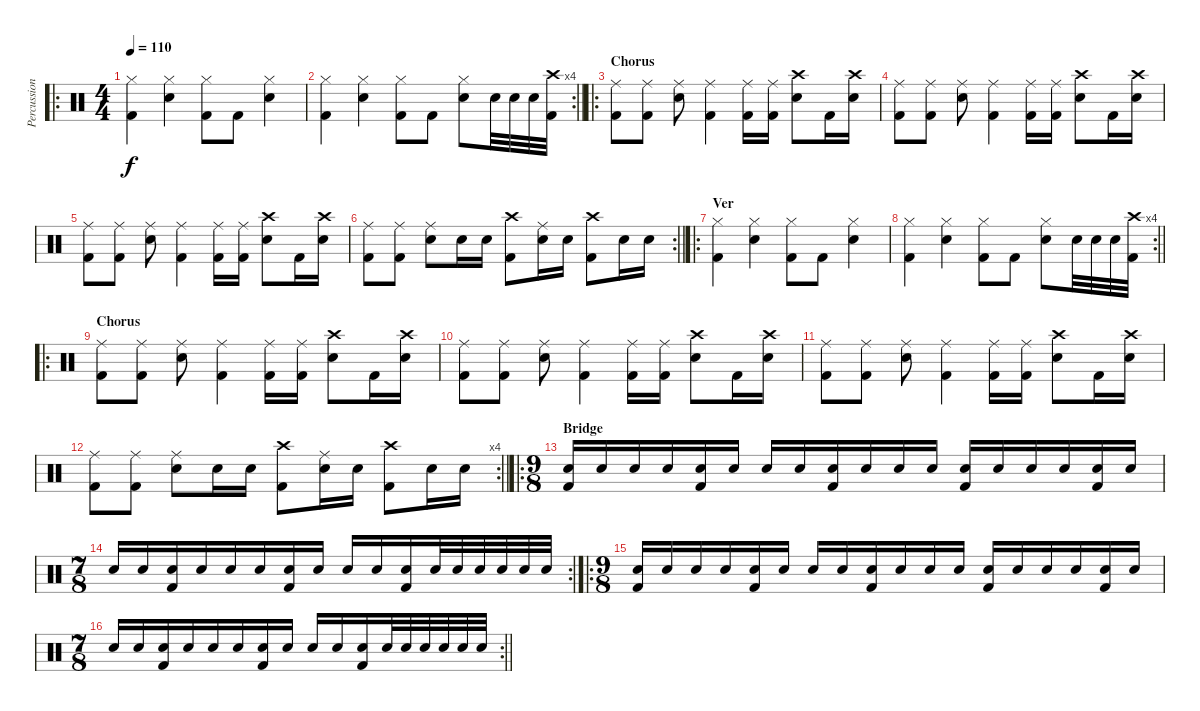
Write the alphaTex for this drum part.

\track ("Percussion" "Percussion") {instrument percussion}
\staff {score}
\articulation defaults
\ro
\ts (4 4)
\tempo 110
\clef neutral
\ks c
("Hi-Hat (closed)" "Kick (hit) 2").4{dy f} ("Hi-Hat (closed)" "Snare (hit) 2").4 ("Hi-Hat (closed)" "Kick (hit) 2").8 "Kick (hit) 2".8 ("Hi-Hat (closed)" "Snare (hit) 2").4 |
\rc 4
\barLineRight lightlight
("Hi-Hat (closed)" "Kick (hit) 2").4 ("Hi-Hat (closed)" "Snare (hit) 2").4 ("Hi-Hat (closed)" "Kick (hit) 2").8 "Kick (hit) 2".8 ("Hi-Hat (closed)" "Snare (hit) 2").8 "Snare (hit) 2".32 "Snare (hit) 2".32 "Snare (hit) 2".32 ("Crash high (hit)" "Kick (hit) 2").32 |
\ro
\section ("" "Chorus")
("Ride (middle)" "Kick (hit) 2").8 ("Ride (middle)" "Kick (hit) 2").8 ("Ride (middle)" "Snare (hit) 2").8 ("Ride (middle)" "Kick (hit) 2").4 ("Ride (middle)" "Kick (hit) 2").16 ("Ride (middle)" "Kick (hit) 2").16 ("Crash high (hit)" "Snare (hit) 2").8 "Kick (hit) 2".16 ("Crash high (hit)" "Snare (hit) 2").16 |
("Ride (middle)" "Kick (hit) 2").8 ("Ride (middle)" "Kick (hit) 2").8 ("Ride (middle)" "Snare (hit) 2").8 ("Ride (middle)" "Kick (hit) 2").4 ("Ride (middle)" "Kick (hit) 2").16 ("Ride (middle)" "Kick (hit) 2").16 ("Crash high (hit)" "Snare (hit) 2").8 "Kick (hit) 2".16 ("Crash high (hit)" "Snare (hit) 2").16 |
("Ride (middle)" "Kick (hit) 2").8 ("Ride (middle)" "Kick (hit) 2").8 ("Ride (middle)" "Snare (hit) 2").8 ("Ride (middle)" "Kick (hit) 2").4 ("Ride (middle)" "Kick (hit) 2").16 ("Ride (middle)" "Kick (hit) 2").16 ("Crash high (hit)" "Snare (hit) 2").8 "Kick (hit) 2".16 ("Crash high (hit)" "Snare (hit) 2").16 |
\rc 2
\barLineRight lightlight
("Ride (middle)" "Kick (hit) 2").8 ("Ride (middle)" "Kick (hit) 2").8 ("Ride (middle)" "Snare (hit) 2").8 "Snare (hit) 2".16 "Snare (hit) 2".16 ("Crash high (hit)" "Kick (hit) 2").8 ("Ride (middle)" "Snare (hit) 2").16 "Snare (hit) 2".16 ("Crash high (hit)" "Kick (hit) 2").8 "Snare (hit) 2".16 "Snare (hit) 2".16 |
\ro
\section ("" "Ver")
("Hi-Hat (closed)" "Kick (hit) 2").4 ("Hi-Hat (closed)" "Snare (hit) 2").4 ("Hi-Hat (closed)" "Kick (hit) 2").8 "Kick (hit) 2".8 ("Hi-Hat (closed)" "Snare (hit) 2").4 |
\rc 4
\barLineRight lightlight
("Hi-Hat (closed)" "Kick (hit) 2").4 ("Hi-Hat (closed)" "Snare (hit) 2").4 ("Hi-Hat (closed)" "Kick (hit) 2").8 "Kick (hit) 2".8 ("Hi-Hat (closed)" "Snare (hit) 2").8 "Snare (hit) 2".32 "Snare (hit) 2".32 "Snare (hit) 2".32 ("Crash high (hit)" "Kick (hit) 2").32 |
\ro
\section ("" "Chorus")
("Ride (middle)" "Kick (hit) 2").8 ("Ride (middle)" "Kick (hit) 2").8 ("Ride (middle)" "Snare (hit) 2").8 ("Ride (middle)" "Kick (hit) 2").4 ("Ride (middle)" "Kick (hit) 2").16 ("Ride (middle)" "Kick (hit) 2").16 ("Crash high (hit)" "Snare (hit) 2").8 "Kick (hit) 2".16 ("Crash high (hit)" "Snare (hit) 2").16 |
("Ride (middle)" "Kick (hit) 2").8 ("Ride (middle)" "Kick (hit) 2").8 ("Ride (middle)" "Snare (hit) 2").8 ("Ride (middle)" "Kick (hit) 2").4 ("Ride (middle)" "Kick (hit) 2").16 ("Ride (middle)" "Kick (hit) 2").16 ("Crash high (hit)" "Snare (hit) 2").8 "Kick (hit) 2".16 ("Crash high (hit)" "Snare (hit) 2").16 |
("Ride (middle)" "Kick (hit) 2").8 ("Ride (middle)" "Kick (hit) 2").8 ("Ride (middle)" "Snare (hit) 2").8 ("Ride (middle)" "Kick (hit) 2").4 ("Ride (middle)" "Kick (hit) 2").16 ("Ride (middle)" "Kick (hit) 2").16 ("Crash high (hit)" "Snare (hit) 2").8 "Kick (hit) 2".16 ("Crash high (hit)" "Snare (hit) 2").16 |
\rc 4
\barLineRight lightlight
("Ride (middle)" "Kick (hit) 2").8 ("Ride (middle)" "Kick (hit) 2").8 ("Ride (middle)" "Snare (hit) 2").8 "Snare (hit) 2".16 "Snare (hit) 2".16 ("Crash high (hit)" "Kick (hit) 2").8 ("Ride (middle)" "Snare (hit) 2").16 "Snare (hit) 2".16 ("Crash high (hit)" "Kick (hit) 2").8 "Snare (hit) 2".16 "Snare (hit) 2".16 |
\ro
\ts (9 8)
\section ("" "Bridge")
("Snare (hit) 2" "Kick (hit) 2").16 "Snare (hit) 2".16 "Snare (hit) 2".16 "Snare (hit) 2".16 ("Snare (hit) 2" "Kick (hit) 2").16 "Snare (hit) 2".16 "Snare (hit) 2".16 "Snare (hit) 2".16 ("Snare (hit) 2" "Kick (hit) 2").16 "Snare (hit) 2".16 "Snare (hit) 2".16 "Snare (hit) 2".16 ("Snare (hit) 2" "Kick (hit) 2").16 "Snare (hit) 2".16 "Snare (hit) 2".16 "Snare (hit) 2".16 ("Snare (hit) 2" "Kick (hit) 2").16 "Snare (hit) 2".16 |
\rc 2
\ts (7 8)
"Snare (hit) 2".16 "Snare (hit) 2".16 ("Snare (hit) 2" "Kick (hit) 2").16 "Snare (hit) 2".16 "Snare (hit) 2".16 "Snare (hit) 2".16 ("Snare (hit) 2" "Kick (hit) 2").16 "Snare (hit) 2".16 "Snare (hit) 2".16 "Snare (hit) 2".16 ("Snare (hit) 2" "Kick (hit) 2").16 "Snare (hit) 2".32 "Snare (hit) 2".32 "Snare (hit) 2".32 "Snare (hit) 2".32 "Snare (hit) 2".32 "Snare (hit) 2".32 |
\ro
\ts (9 8)
("Snare (hit) 2" "Kick (hit) 2").16 "Snare (hit) 2".16 "Snare (hit) 2".16 "Snare (hit) 2".16 ("Snare (hit) 2" "Kick (hit) 2").16 "Snare (hit) 2".16 "Snare (hit) 2".16 "Snare (hit) 2".16 ("Snare (hit) 2" "Kick (hit) 2").16 "Snare (hit) 2".16 "Snare (hit) 2".16 "Snare (hit) 2".16 ("Snare (hit) 2" "Kick (hit) 2").16 "Snare (hit) 2".16 "Snare (hit) 2".16 "Snare (hit) 2".16 ("Snare (hit) 2" "Kick (hit) 2").16 "Snare (hit) 2".16 |
\rc 2
\ts (7 8)
\barLineRight lightlight "Snare (hit) 2".16 "Snare (hit) 2".16
("Snare (hit) 2" "Kick (hit) 2").16 "Snare (hit) 2".16 "Snare (hit) 2".16 "Snare (hit) 2".16 ("Snare (hit) 2" "Kick (hit) 2").16 "Snare (hit) 2".16 "Snare (hit) 2".16 "Snare (hit) 2".16 ("Snare (hit) 2" "Kick (hit) 2").16 "Snare (hit) 2".32 "Snare (hit) 2".32 "Snare (hit) 2".32 "Snare (hit) 2".32 "Snare (hit) 2".32 "Snare (hit) 2".32
